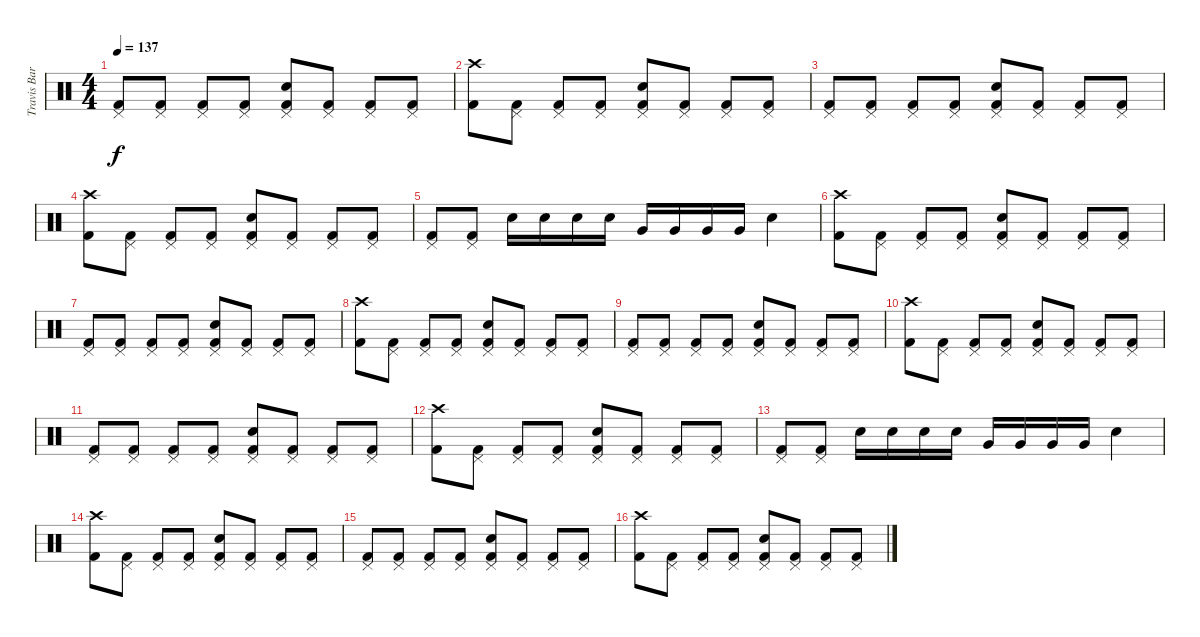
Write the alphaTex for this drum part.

\track ("Travis Barker" "Travis Bar") {instrument percussion}
\staff {score}
\articulation defaults
\ts (4 4)
\tempo 137
\clef neutral
\ks c
("Pedal Hi-Hat (hit)" "Kick (hit) 2").8{dy f} ("Pedal Hi-Hat (hit)" "Kick (hit) 2").8 ("Pedal Hi-Hat (hit)" "Kick (hit) 2").8 ("Pedal Hi-Hat (hit)" "Kick (hit) 2").8 ("Pedal Hi-Hat (hit)" "Snare (hit) 2" "Kick (hit) 2").8 ("Pedal Hi-Hat (hit)" "Kick (hit) 2").8 ("Pedal Hi-Hat (hit)" "Kick (hit) 2").8 ("Pedal Hi-Hat (hit)" "Kick (hit) 2").8 |
("Crash high (hit)" "Kick (hit) 2").8 ("Pedal Hi-Hat (hit)" "Kick (hit) 2").8 ("Pedal Hi-Hat (hit)" "Kick (hit) 2").8 ("Pedal Hi-Hat (hit)" "Kick (hit) 2").8 ("Pedal Hi-Hat (hit)" "Snare (hit) 2" "Kick (hit) 2").8 ("Pedal Hi-Hat (hit)" "Kick (hit) 2").8 ("Pedal Hi-Hat (hit)" "Kick (hit) 2").8 ("Pedal Hi-Hat (hit)" "Kick (hit) 2").8 |
("Pedal Hi-Hat (hit)" "Kick (hit) 2").8 ("Pedal Hi-Hat (hit)" "Kick (hit) 2").8 ("Pedal Hi-Hat (hit)" "Kick (hit) 2").8 ("Pedal Hi-Hat (hit)" "Kick (hit) 2").8 ("Pedal Hi-Hat (hit)" "Snare (hit) 2" "Kick (hit) 2").8 ("Pedal Hi-Hat (hit)" "Kick (hit) 2").8 ("Pedal Hi-Hat (hit)" "Kick (hit) 2").8 ("Pedal Hi-Hat (hit)" "Kick (hit) 2").8 |
("Crash high (hit)" "Kick (hit) 2").8 ("Pedal Hi-Hat (hit)" "Kick (hit) 2").8 ("Pedal Hi-Hat (hit)" "Kick (hit) 2").8 ("Pedal Hi-Hat (hit)" "Kick (hit) 2").8 ("Pedal Hi-Hat (hit)" "Snare (hit) 2" "Kick (hit) 2").8 ("Pedal Hi-Hat (hit)" "Kick (hit) 2").8 ("Pedal Hi-Hat (hit)" "Kick (hit) 2").8 ("Pedal Hi-Hat (hit)" "Kick (hit) 2").8 |
("Pedal Hi-Hat (hit)" "Kick (hit) 2").8 ("Pedal Hi-Hat (hit)" "Kick (hit) 2").8 "Snare (hit) 2".16 "Snare (hit) 2".16 "Snare (hit) 2".16 "Snare (hit) 2".16 "Very Low Tom (hit)".16 "Very Low Tom (hit)".16 "Very Low Tom (hit)".16 "Very Low Tom (hit)".16 "Snare (hit) 2".4 |
("Crash high (hit)" "Kick (hit) 2").8 ("Pedal Hi-Hat (hit)" "Kick (hit) 2").8 ("Pedal Hi-Hat (hit)" "Kick (hit) 2").8 ("Pedal Hi-Hat (hit)" "Kick (hit) 2").8 ("Pedal Hi-Hat (hit)" "Snare (hit) 2" "Kick (hit) 2").8 ("Pedal Hi-Hat (hit)" "Kick (hit) 2").8 ("Pedal Hi-Hat (hit)" "Kick (hit) 2").8 ("Pedal Hi-Hat (hit)" "Kick (hit) 2").8 |
("Pedal Hi-Hat (hit)" "Kick (hit) 2").8 ("Pedal Hi-Hat (hit)" "Kick (hit) 2").8 ("Pedal Hi-Hat (hit)" "Kick (hit) 2").8 ("Pedal Hi-Hat (hit)" "Kick (hit) 2").8 ("Pedal Hi-Hat (hit)" "Snare (hit) 2" "Kick (hit) 2").8 ("Pedal Hi-Hat (hit)" "Kick (hit) 2").8 ("Pedal Hi-Hat (hit)" "Kick (hit) 2").8 ("Pedal Hi-Hat (hit)" "Kick (hit) 2").8 |
("Crash high (hit)" "Kick (hit) 2").8 ("Pedal Hi-Hat (hit)" "Kick (hit) 2").8 ("Pedal Hi-Hat (hit)" "Kick (hit) 2").8 ("Pedal Hi-Hat (hit)" "Kick (hit) 2").8 ("Pedal Hi-Hat (hit)" "Snare (hit) 2" "Kick (hit) 2").8 ("Pedal Hi-Hat (hit)" "Kick (hit) 2").8 ("Pedal Hi-Hat (hit)" "Kick (hit) 2").8 ("Pedal Hi-Hat (hit)" "Kick (hit) 2").8 |
("Pedal Hi-Hat (hit)" "Kick (hit) 2").8 ("Pedal Hi-Hat (hit)" "Kick (hit) 2").8 ("Pedal Hi-Hat (hit)" "Kick (hit) 2").8 ("Pedal Hi-Hat (hit)" "Kick (hit) 2").8 ("Pedal Hi-Hat (hit)" "Snare (hit) 2" "Kick (hit) 2").8 ("Pedal Hi-Hat (hit)" "Kick (hit) 2").8 ("Pedal Hi-Hat (hit)" "Kick (hit) 2").8 ("Pedal Hi-Hat (hit)" "Kick (hit) 2").8 |
("Crash high (hit)" "Kick (hit) 2").8 ("Pedal Hi-Hat (hit)" "Kick (hit) 2").8 ("Pedal Hi-Hat (hit)" "Kick (hit) 2").8 ("Pedal Hi-Hat (hit)" "Kick (hit) 2").8 ("Pedal Hi-Hat (hit)" "Snare (hit) 2" "Kick (hit) 2").8 ("Pedal Hi-Hat (hit)" "Kick (hit) 2").8 ("Pedal Hi-Hat (hit)" "Kick (hit) 2").8 ("Pedal Hi-Hat (hit)" "Kick (hit) 2").8 |
("Pedal Hi-Hat (hit)" "Kick (hit) 2").8 ("Pedal Hi-Hat (hit)" "Kick (hit) 2").8 ("Pedal Hi-Hat (hit)" "Kick (hit) 2").8 ("Pedal Hi-Hat (hit)" "Kick (hit) 2").8 ("Pedal Hi-Hat (hit)" "Snare (hit) 2" "Kick (hit) 2").8 ("Pedal Hi-Hat (hit)" "Kick (hit) 2").8 ("Pedal Hi-Hat (hit)" "Kick (hit) 2").8 ("Pedal Hi-Hat (hit)" "Kick (hit) 2").8 |
("Crash high (hit)" "Kick (hit) 2").8 ("Pedal Hi-Hat (hit)" "Kick (hit) 2").8 ("Pedal Hi-Hat (hit)" "Kick (hit) 2").8 ("Pedal Hi-Hat (hit)" "Kick (hit) 2").8 ("Pedal Hi-Hat (hit)" "Snare (hit) 2" "Kick (hit) 2").8 ("Pedal Hi-Hat (hit)" "Kick (hit) 2").8 ("Pedal Hi-Hat (hit)" "Kick (hit) 2").8 ("Pedal Hi-Hat (hit)" "Kick (hit) 2").8 |
("Pedal Hi-Hat (hit)" "Kick (hit) 2").8 ("Pedal Hi-Hat (hit)" "Kick (hit) 2").8 "Snare (hit) 2".16 "Snare (hit) 2".16 "Snare (hit) 2".16 "Snare (hit) 2".16 "Very Low Tom (hit)".16 "Very Low Tom (hit)".16 "Very Low Tom (hit)".16 "Very Low Tom (hit)".16 "Snare (hit) 2".4 |
("Crash high (hit)" "Kick (hit) 2").8 ("Pedal Hi-Hat (hit)" "Kick (hit) 2").8 ("Pedal Hi-Hat (hit)" "Kick (hit) 2").8 ("Pedal Hi-Hat (hit)" "Kick (hit) 2").8 ("Pedal Hi-Hat (hit)" "Snare (hit) 2" "Kick (hit) 2").8 ("Pedal Hi-Hat (hit)" "Kick (hit) 2").8 ("Pedal Hi-Hat (hit)" "Kick (hit) 2").8 ("Pedal Hi-Hat (hit)" "Kick (hit) 2").8 |
("Pedal Hi-Hat (hit)" "Kick (hit) 2").8 ("Pedal Hi-Hat (hit)" "Kick (hit) 2").8 ("Pedal Hi-Hat (hit)" "Kick (hit) 2").8 ("Pedal Hi-Hat (hit)" "Kick (hit) 2").8 ("Pedal Hi-Hat (hit)" "Snare (hit) 2" "Kick (hit) 2").8 ("Pedal Hi-Hat (hit)" "Kick (hit) 2").8 ("Pedal Hi-Hat (hit)" "Kick (hit) 2").8 ("Pedal Hi-Hat (hit)" "Kick (hit) 2").8 |
("Crash high (hit)" "Kick (hit) 2").8 ("Pedal Hi-Hat (hit)" "Kick (hit) 2").8 ("Pedal Hi-Hat (hit)" "Kick (hit) 2").8 ("Pedal Hi-Hat (hit)" "Kick (hit) 2").8 ("Pedal Hi-Hat (hit)" "Snare (hit) 2" "Kick (hit) 2").8 ("Pedal Hi-Hat (hit)" "Kick (hit) 2").8 ("Pedal Hi-Hat (hit)" "Kick (hit) 2").8 ("Pedal Hi-Hat (hit)" "Kick (hit) 2").8
